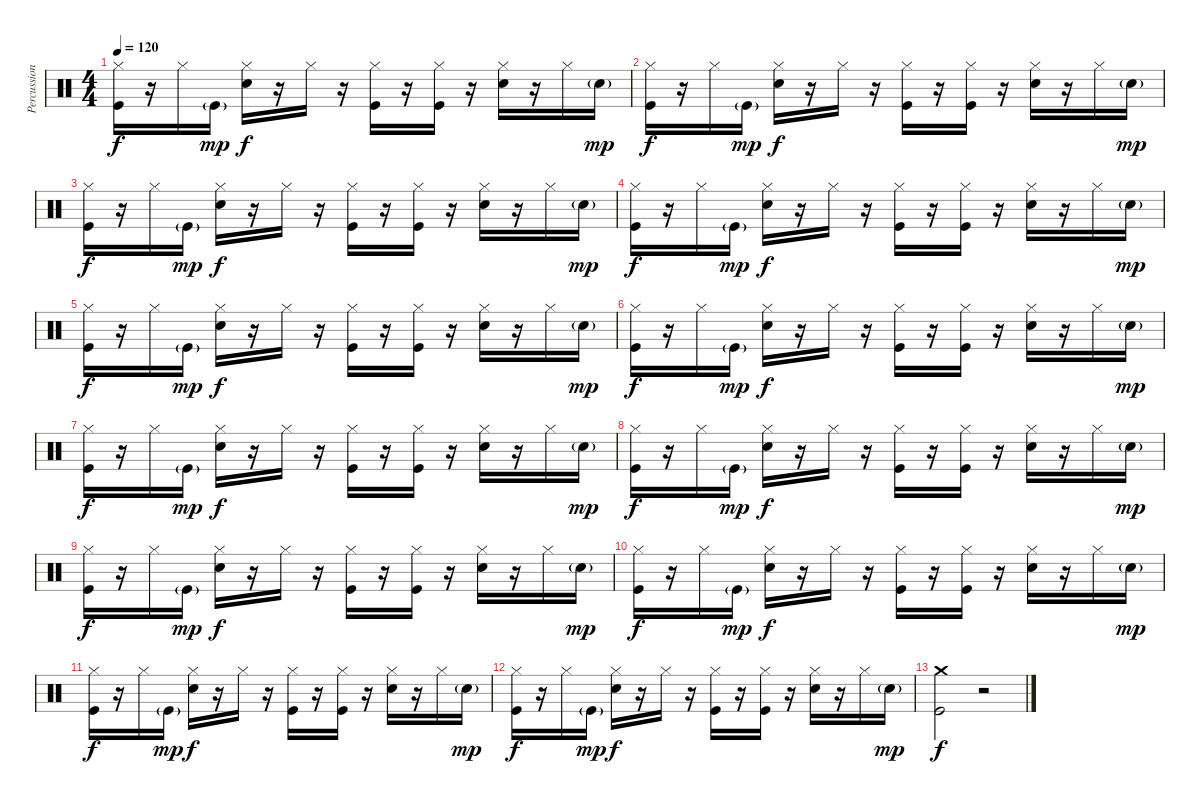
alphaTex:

\track ("Percussions" "Percussion") {instrument percussion}
\staff {score}
\articulation defaults
\ts (4 4)
\tempo 120
\clef neutral
\ks c
("Hi-Hat (closed)" "Kick (hit)").16{dy f} r.16 "Hi-Hat (closed)".16 "Kick (hit)"{g}.16{dy mp} ("Hi-Hat (closed)" "Snare (hit) 2").16{dy f} r.16 "Hi-Hat (closed)".16 r.16 ("Hi-Hat (closed)" "Kick (hit)").16 r.16 ("Hi-Hat (closed)" "Kick (hit)").16 r.16 ("Hi-Hat (closed)" "Snare (hit) 2").16 r.16 "Hi-Hat (closed)".16 "Snare (hit) 2"{g}.16{dy mp} |
("Hi-Hat (closed)" "Kick (hit)").16{dy f} r.16 "Hi-Hat (closed)".16 "Kick (hit)"{g}.16{dy mp} ("Hi-Hat (closed)" "Snare (hit) 2").16{dy f} r.16 "Hi-Hat (closed)".16 r.16 ("Hi-Hat (closed)" "Kick (hit)").16 r.16 ("Hi-Hat (closed)" "Kick (hit)").16 r.16 ("Hi-Hat (closed)" "Snare (hit) 2").16 r.16 "Hi-Hat (closed)".16 "Snare (hit) 2"{g}.16{dy mp} |
("Hi-Hat (closed)" "Kick (hit)").16{dy f} r.16 "Hi-Hat (closed)".16 "Kick (hit)"{g}.16{dy mp} ("Hi-Hat (closed)" "Snare (hit) 2").16{dy f} r.16 "Hi-Hat (closed)".16 r.16 ("Hi-Hat (closed)" "Kick (hit)").16 r.16 ("Hi-Hat (closed)" "Kick (hit)").16 r.16 ("Hi-Hat (closed)" "Snare (hit) 2").16 r.16 "Hi-Hat (closed)".16 "Snare (hit) 2"{g}.16{dy mp} |
("Hi-Hat (closed)" "Kick (hit)").16{dy f} r.16 "Hi-Hat (closed)".16 "Kick (hit)"{g}.16{dy mp} ("Hi-Hat (closed)" "Snare (hit) 2").16{dy f} r.16 "Hi-Hat (closed)".16 r.16 ("Hi-Hat (closed)" "Kick (hit)").16 r.16 ("Hi-Hat (closed)" "Kick (hit)").16 r.16 ("Hi-Hat (closed)" "Snare (hit) 2").16 r.16 "Hi-Hat (closed)".16 "Snare (hit) 2"{g}.16{dy mp} |
("Hi-Hat (closed)" "Kick (hit)").16{dy f} r.16 "Hi-Hat (closed)".16 "Kick (hit)"{g}.16{dy mp} ("Hi-Hat (closed)" "Snare (hit) 2").16{dy f} r.16 "Hi-Hat (closed)".16 r.16 ("Hi-Hat (closed)" "Kick (hit)").16 r.16 ("Hi-Hat (closed)" "Kick (hit)").16 r.16 ("Hi-Hat (closed)" "Snare (hit) 2").16 r.16 "Hi-Hat (closed)".16 "Snare (hit) 2"{g}.16{dy mp} |
("Hi-Hat (closed)" "Kick (hit)").16{dy f} r.16 "Hi-Hat (closed)".16 "Kick (hit)"{g}.16{dy mp} ("Hi-Hat (closed)" "Snare (hit) 2").16{dy f} r.16 "Hi-Hat (closed)".16 r.16 ("Hi-Hat (closed)" "Kick (hit)").16 r.16 ("Hi-Hat (closed)" "Kick (hit)").16 r.16 ("Hi-Hat (closed)" "Snare (hit) 2").16 r.16 "Hi-Hat (closed)".16 "Snare (hit) 2"{g}.16{dy mp} |
("Hi-Hat (closed)" "Kick (hit)").16{dy f} r.16 "Hi-Hat (closed)".16 "Kick (hit)"{g}.16{dy mp} ("Hi-Hat (closed)" "Snare (hit) 2").16{dy f} r.16 "Hi-Hat (closed)".16 r.16 ("Hi-Hat (closed)" "Kick (hit)").16 r.16 ("Hi-Hat (closed)" "Kick (hit)").16 r.16 ("Hi-Hat (closed)" "Snare (hit) 2").16 r.16 "Hi-Hat (closed)".16 "Snare (hit) 2"{g}.16{dy mp} |
("Hi-Hat (closed)" "Kick (hit)").16{dy f} r.16 "Hi-Hat (closed)".16 "Kick (hit)"{g}.16{dy mp} ("Hi-Hat (closed)" "Snare (hit) 2").16{dy f} r.16 "Hi-Hat (closed)".16 r.16 ("Hi-Hat (closed)" "Kick (hit)").16 r.16 ("Hi-Hat (closed)" "Kick (hit)").16 r.16 ("Hi-Hat (closed)" "Snare (hit) 2").16 r.16 "Hi-Hat (closed)".16 "Snare (hit) 2"{g}.16{dy mp} |
("Hi-Hat (closed)" "Kick (hit)").16{dy f} r.16 "Hi-Hat (closed)".16 "Kick (hit)"{g}.16{dy mp} ("Hi-Hat (closed)" "Snare (hit) 2").16{dy f} r.16 "Hi-Hat (closed)".16 r.16 ("Hi-Hat (closed)" "Kick (hit)").16 r.16 ("Hi-Hat (closed)" "Kick (hit)").16 r.16 ("Hi-Hat (closed)" "Snare (hit) 2").16 r.16 "Hi-Hat (closed)".16 "Snare (hit) 2"{g}.16{dy mp} |
("Hi-Hat (closed)" "Kick (hit)").16{dy f} r.16 "Hi-Hat (closed)".16 "Kick (hit)"{g}.16{dy mp} ("Hi-Hat (closed)" "Snare (hit) 2").16{dy f} r.16 "Hi-Hat (closed)".16 r.16 ("Hi-Hat (closed)" "Kick (hit)").16 r.16 ("Hi-Hat (closed)" "Kick (hit)").16 r.16 ("Hi-Hat (closed)" "Snare (hit) 2").16 r.16 "Hi-Hat (closed)".16 "Snare (hit) 2"{g}.16{dy mp} |
("Hi-Hat (closed)" "Kick (hit)").16{dy f} r.16 "Hi-Hat (closed)".16 "Kick (hit)"{g}.16{dy mp} ("Hi-Hat (closed)" "Snare (hit) 2").16{dy f} r.16 "Hi-Hat (closed)".16 r.16 ("Hi-Hat (closed)" "Kick (hit)").16 r.16 ("Hi-Hat (closed)" "Kick (hit)").16 r.16 ("Hi-Hat (closed)" "Snare (hit) 2").16 r.16 "Hi-Hat (closed)".16 "Snare (hit) 2"{g}.16{dy mp} |
("Hi-Hat (closed)" "Kick (hit)").16{dy f} r.16 "Hi-Hat (closed)".16 "Kick (hit)"{g}.16{dy mp} ("Hi-Hat (closed)" "Snare (hit) 2").16{dy f} r.16 "Hi-Hat (closed)".16 r.16 ("Hi-Hat (closed)" "Kick (hit)").16 r.16 ("Hi-Hat (closed)" "Kick (hit)").16 r.16 ("Hi-Hat (closed)" "Snare (hit) 2").16 r.16 "Hi-Hat (closed)".16 "Snare (hit) 2"{g}.16{dy mp} |
("Crash medium (hit)" "Kick (hit)").2{dy f} r.2
